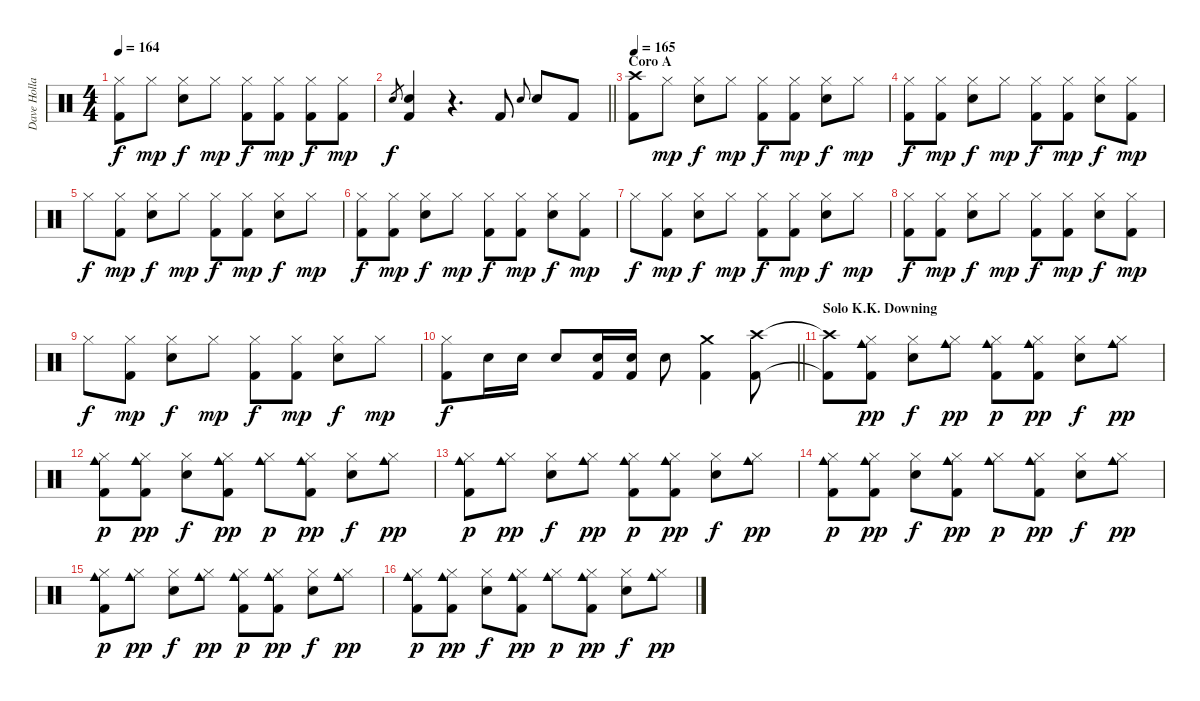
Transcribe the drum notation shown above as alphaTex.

\track ("Dave Holland" "Dave Holla") {instrument percussion}
\staff {score}
\articulation defaults
\ts (4 4)
\tempo 164
\clef neutral
\ks c
("Hi-Hat (closed)" "Kick (hit) 2").8{dy f} "Hi-Hat (closed)".8{dy mp} ("Hi-Hat (closed)" "Snare (hit) 2").8{dy f} "Hi-Hat (closed)".8{dy mp} ("Hi-Hat (closed)" "Kick (hit) 2").8{dy f} ("Hi-Hat (closed)" "Kick (hit) 2").8{dy mp} ("Hi-Hat (closed)" "Kick (hit) 2").8{dy f} ("Hi-Hat (closed)" "Kick (hit) 2").8{dy mp} |
\barLineRight lightlight "Snare (hit) 2".8{gr dy f}
("Snare (hit) 2" "Kick (hit) 2").4 r.4{d} "Kick (hit) 2".8 "Snare (hit) 2".8{gr onbeat} "Snare (hit) 2".8 "Kick (hit) 2".8 |
\section ("" "Coro A")
\tempo 165
("Crash high (hit)" "Kick (hit) 2").8 "Hi-Hat (closed)".8{dy mp} ("Hi-Hat (closed)" "Snare (hit) 2").8{dy f} "Hi-Hat (closed)".8{dy mp} ("Hi-Hat (closed)" "Kick (hit) 2").8{dy f} ("Hi-Hat (closed)" "Kick (hit) 2").8{dy mp} ("Hi-Hat (closed)" "Snare (hit) 2").8{dy f} "Hi-Hat (closed)".8{dy mp} |
("Hi-Hat (closed)" "Kick (hit) 2").8{dy f} ("Hi-Hat (closed)" "Kick (hit) 2").8{dy mp} ("Hi-Hat (closed)" "Snare (hit) 2").8{dy f} "Hi-Hat (closed)".8{dy mp} ("Hi-Hat (closed)" "Kick (hit) 2").8{dy f} ("Hi-Hat (closed)" "Kick (hit) 2").8{dy mp} ("Hi-Hat (closed)" "Snare (hit) 2").8{dy f} ("Hi-Hat (closed)" "Kick (hit) 2").8{dy mp} |
"Hi-Hat (closed)".8{dy f} ("Hi-Hat (closed)" "Kick (hit) 2").8{dy mp} ("Hi-Hat (closed)" "Snare (hit) 2").8{dy f} "Hi-Hat (closed)".8{dy mp} ("Hi-Hat (closed)" "Kick (hit) 2").8{dy f} ("Hi-Hat (closed)" "Kick (hit) 2").8{dy mp} ("Hi-Hat (closed)" "Snare (hit) 2").8{dy f} "Hi-Hat (closed)".8{dy mp} |
("Hi-Hat (closed)" "Kick (hit) 2").8{dy f} ("Hi-Hat (closed)" "Kick (hit) 2").8{dy mp} ("Hi-Hat (closed)" "Snare (hit) 2").8{dy f} "Hi-Hat (closed)".8{dy mp} ("Hi-Hat (closed)" "Kick (hit) 2").8{dy f} ("Hi-Hat (closed)" "Kick (hit) 2").8{dy mp} ("Hi-Hat (closed)" "Snare (hit) 2").8{dy f} ("Hi-Hat (closed)" "Kick (hit) 2").8{dy mp} |
"Hi-Hat (closed)".8{dy f} ("Hi-Hat (closed)" "Kick (hit) 2").8{dy mp} ("Hi-Hat (closed)" "Snare (hit) 2").8{dy f} "Hi-Hat (closed)".8{dy mp} ("Hi-Hat (closed)" "Kick (hit) 2").8{dy f} ("Hi-Hat (closed)" "Kick (hit) 2").8{dy mp} ("Hi-Hat (closed)" "Snare (hit) 2").8{dy f} "Hi-Hat (closed)".8{dy mp} |
("Hi-Hat (closed)" "Kick (hit) 2").8{dy f} ("Hi-Hat (closed)" "Kick (hit) 2").8{dy mp} ("Hi-Hat (closed)" "Snare (hit) 2").8{dy f} "Hi-Hat (closed)".8{dy mp} ("Hi-Hat (closed)" "Kick (hit) 2").8{dy f} ("Hi-Hat (closed)" "Kick (hit) 2").8{dy mp} ("Hi-Hat (closed)" "Snare (hit) 2").8{dy f} ("Hi-Hat (closed)" "Kick (hit) 2").8{dy mp} |
"Hi-Hat (closed)".8{dy f} ("Hi-Hat (closed)" "Kick (hit) 2").8{dy mp} ("Hi-Hat (closed)" "Snare (hit) 2").8{dy f} "Hi-Hat (closed)".8{dy mp} ("Hi-Hat (closed)" "Kick (hit) 2").8{dy f} ("Hi-Hat (closed)" "Kick (hit) 2").8{dy mp} ("Hi-Hat (closed)" "Snare (hit) 2").8{dy f} "Hi-Hat (closed)".8{dy mp} |
\barLineRight lightlight
("Hi-Hat (closed)" "Kick (hit) 2").8{dy f} "Snare (hit) 2".16 "Snare (hit) 2".16 "Snare (hit) 2".8 ("Snare (hit) 2" "Kick (hit) 2").16 ("Snare (hit) 2" "Kick (hit) 2").16 "Snare (hit) 2".8 ("Crash medium (hit)" "Kick (hit) 2").4 ("Crash high (hit)" "Kick (hit) 2").8 |
\section ("" "Solo K.K. Downing")
("Crash high (hit)"{t} "Kick (hit) 2"{t}).8 ("Hi-Hat (closed)" "Cowbell medium (hit)" "Kick (hit) 2").8{dy pp} ("Hi-Hat (closed)" "Snare (hit) 2").8{dy f} ("Hi-Hat (closed)" "Cowbell medium (hit)").8{dy pp} ("Hi-Hat (closed)" "Cowbell medium (hit)" "Kick (hit) 2").8{dy p} ("Hi-Hat (closed)" "Cowbell medium (hit)" "Kick (hit) 2").8{dy pp} ("Hi-Hat (closed)" "Snare (hit) 2").8{dy f} ("Hi-Hat (closed)" "Cowbell medium (hit)").8{dy pp} |
("Hi-Hat (closed)" "Cowbell medium (hit)" "Kick (hit) 2").8{dy p} ("Hi-Hat (closed)" "Cowbell medium (hit)" "Kick (hit) 2").8{dy pp} ("Hi-Hat (closed)" "Snare (hit) 2").8{dy f} ("Hi-Hat (closed)" "Cowbell medium (hit)" "Kick (hit) 2").8{dy pp} ("Hi-Hat (closed)" "Cowbell medium (hit)").8{dy p} ("Hi-Hat (closed)" "Cowbell medium (hit)" "Kick (hit) 2").8{dy pp} ("Hi-Hat (closed)" "Snare (hit) 2").8{dy f} ("Hi-Hat (closed)" "Cowbell medium (hit)").8{dy pp} |
("Hi-Hat (closed)" "Cowbell medium (hit)" "Kick (hit) 2").8{dy p} ("Hi-Hat (closed)" "Cowbell medium (hit)").8{dy pp} ("Hi-Hat (closed)" "Snare (hit) 2").8{dy f} ("Hi-Hat (closed)" "Cowbell medium (hit)").8{dy pp} ("Hi-Hat (closed)" "Cowbell medium (hit)" "Kick (hit) 2").8{dy p} ("Hi-Hat (closed)" "Cowbell medium (hit)" "Kick (hit) 2").8{dy pp} ("Hi-Hat (closed)" "Snare (hit) 2").8{dy f} ("Hi-Hat (closed)" "Cowbell medium (hit)").8{dy pp} |
("Hi-Hat (closed)" "Cowbell medium (hit)" "Kick (hit) 2").8{dy p} ("Hi-Hat (closed)" "Cowbell medium (hit)" "Kick (hit) 2").8{dy pp} ("Hi-Hat (closed)" "Snare (hit) 2").8{dy f} ("Hi-Hat (closed)" "Cowbell medium (hit)" "Kick (hit) 2").8{dy pp} ("Hi-Hat (closed)" "Cowbell medium (hit)").8{dy p} ("Hi-Hat (closed)" "Cowbell medium (hit)" "Kick (hit) 2").8{dy pp} ("Hi-Hat (closed)" "Snare (hit) 2").8{dy f} ("Hi-Hat (closed)" "Cowbell medium (hit)").8{dy pp} |
("Hi-Hat (closed)" "Cowbell medium (hit)" "Kick (hit) 2").8{dy p} ("Hi-Hat (closed)" "Cowbell medium (hit)").8{dy pp} ("Hi-Hat (closed)" "Snare (hit) 2").8{dy f} ("Hi-Hat (closed)" "Cowbell medium (hit)").8{dy pp} ("Hi-Hat (closed)" "Cowbell medium (hit)" "Kick (hit) 2").8{dy p} ("Hi-Hat (closed)" "Cowbell medium (hit)" "Kick (hit) 2").8{dy pp} ("Hi-Hat (closed)" "Snare (hit) 2").8{dy f} ("Hi-Hat (closed)" "Cowbell medium (hit)").8{dy pp} |
("Hi-Hat (closed)" "Cowbell medium (hit)" "Kick (hit) 2").8{dy p} ("Hi-Hat (closed)" "Cowbell medium (hit)" "Kick (hit) 2").8{dy pp} ("Hi-Hat (closed)" "Snare (hit) 2").8{dy f} ("Hi-Hat (closed)" "Cowbell medium (hit)" "Kick (hit) 2").8{dy pp} ("Hi-Hat (closed)" "Cowbell medium (hit)").8{dy p} ("Hi-Hat (closed)" "Cowbell medium (hit)" "Kick (hit) 2").8{dy pp} ("Hi-Hat (closed)" "Snare (hit) 2").8{dy f} ("Hi-Hat (closed)" "Cowbell medium (hit)").8{dy pp}
